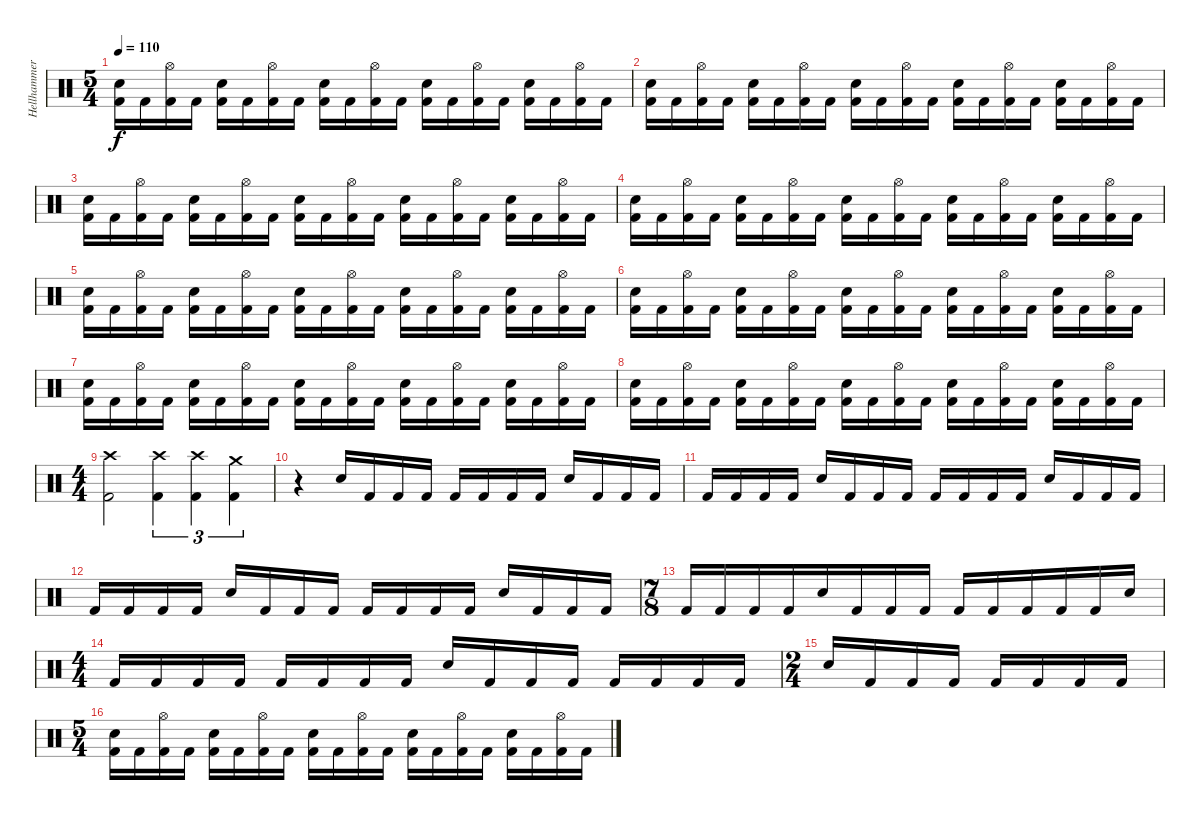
\track ("Hellhammer" "Hellhammer") {instrument percussion}
\staff {score}
\articulation defaults
\ts (5 4)
\tempo 110
\clef neutral
\ks c
("Electric Snare (hit)" "Kick (hit) 2").16{dy f} "Kick (hit) 2".16 ("Hi-Hat (open)" "Kick (hit) 2").16 "Kick (hit) 2".16 ("Electric Snare (hit)" "Kick (hit) 2").16 "Kick (hit) 2".16 ("Hi-Hat (open)" "Kick (hit) 2").16 "Kick (hit) 2".16 ("Electric Snare (hit)" "Kick (hit) 2").16 "Kick (hit) 2".16 ("Hi-Hat (open)" "Kick (hit) 2").16 "Kick (hit) 2".16 ("Electric Snare (hit)" "Kick (hit) 2").16 "Kick (hit) 2".16 ("Hi-Hat (open)" "Kick (hit) 2").16 "Kick (hit) 2".16 ("Electric Snare (hit)" "Kick (hit) 2").16 "Kick (hit) 2".16 ("Hi-Hat (open)" "Kick (hit) 2").16 "Kick (hit) 2".16 |
("Electric Snare (hit)" "Kick (hit) 2").16 "Kick (hit) 2".16 ("Hi-Hat (open)" "Kick (hit) 2").16 "Kick (hit) 2".16 ("Electric Snare (hit)" "Kick (hit) 2").16 "Kick (hit) 2".16 ("Hi-Hat (open)" "Kick (hit) 2").16 "Kick (hit) 2".16 ("Electric Snare (hit)" "Kick (hit) 2").16 "Kick (hit) 2".16 ("Hi-Hat (open)" "Kick (hit) 2").16 "Kick (hit) 2".16 ("Electric Snare (hit)" "Kick (hit) 2").16 "Kick (hit) 2".16 ("Hi-Hat (open)" "Kick (hit) 2").16 "Kick (hit) 2".16 ("Electric Snare (hit)" "Kick (hit) 2").16 "Kick (hit) 2".16 ("Hi-Hat (open)" "Kick (hit) 2").16 "Kick (hit) 2".16 |
("Electric Snare (hit)" "Kick (hit) 2").16 "Kick (hit) 2".16 ("Hi-Hat (open)" "Kick (hit) 2").16 "Kick (hit) 2".16 ("Electric Snare (hit)" "Kick (hit) 2").16 "Kick (hit) 2".16 ("Hi-Hat (open)" "Kick (hit) 2").16 "Kick (hit) 2".16 ("Electric Snare (hit)" "Kick (hit) 2").16 "Kick (hit) 2".16 ("Hi-Hat (open)" "Kick (hit) 2").16 "Kick (hit) 2".16 ("Electric Snare (hit)" "Kick (hit) 2").16 "Kick (hit) 2".16 ("Hi-Hat (open)" "Kick (hit) 2").16 "Kick (hit) 2".16 ("Electric Snare (hit)" "Kick (hit) 2").16 "Kick (hit) 2".16 ("Hi-Hat (open)" "Kick (hit) 2").16 "Kick (hit) 2".16 |
("Electric Snare (hit)" "Kick (hit) 2").16 "Kick (hit) 2".16 ("Hi-Hat (open)" "Kick (hit) 2").16 "Kick (hit) 2".16 ("Electric Snare (hit)" "Kick (hit) 2").16 "Kick (hit) 2".16 ("Hi-Hat (open)" "Kick (hit) 2").16 "Kick (hit) 2".16 ("Electric Snare (hit)" "Kick (hit) 2").16 "Kick (hit) 2".16 ("Hi-Hat (open)" "Kick (hit) 2").16 "Kick (hit) 2".16 ("Electric Snare (hit)" "Kick (hit) 2").16 "Kick (hit) 2".16 ("Hi-Hat (open)" "Kick (hit) 2").16 "Kick (hit) 2".16 ("Electric Snare (hit)" "Kick (hit) 2").16 "Kick (hit) 2".16 ("Hi-Hat (open)" "Kick (hit) 2").16 "Kick (hit) 2".16 |
("Electric Snare (hit)" "Kick (hit) 2").16 "Kick (hit) 2".16 ("Hi-Hat (open)" "Kick (hit) 2").16 "Kick (hit) 2".16 ("Electric Snare (hit)" "Kick (hit) 2").16 "Kick (hit) 2".16 ("Hi-Hat (open)" "Kick (hit) 2").16 "Kick (hit) 2".16 ("Electric Snare (hit)" "Kick (hit) 2").16 "Kick (hit) 2".16 ("Hi-Hat (open)" "Kick (hit) 2").16 "Kick (hit) 2".16 ("Electric Snare (hit)" "Kick (hit) 2").16 "Kick (hit) 2".16 ("Hi-Hat (open)" "Kick (hit) 2").16 "Kick (hit) 2".16 ("Electric Snare (hit)" "Kick (hit) 2").16 "Kick (hit) 2".16 ("Hi-Hat (open)" "Kick (hit) 2").16 "Kick (hit) 2".16 |
("Electric Snare (hit)" "Kick (hit) 2").16 "Kick (hit) 2".16 ("Hi-Hat (open)" "Kick (hit) 2").16 "Kick (hit) 2".16 ("Electric Snare (hit)" "Kick (hit) 2").16 "Kick (hit) 2".16 ("Hi-Hat (open)" "Kick (hit) 2").16 "Kick (hit) 2".16 ("Electric Snare (hit)" "Kick (hit) 2").16 "Kick (hit) 2".16 ("Hi-Hat (open)" "Kick (hit) 2").16 "Kick (hit) 2".16 ("Electric Snare (hit)" "Kick (hit) 2").16 "Kick (hit) 2".16 ("Hi-Hat (open)" "Kick (hit) 2").16 "Kick (hit) 2".16 ("Electric Snare (hit)" "Kick (hit) 2").16 "Kick (hit) 2".16 ("Hi-Hat (open)" "Kick (hit) 2").16 "Kick (hit) 2".16 |
("Electric Snare (hit)" "Kick (hit) 2").16 "Kick (hit) 2".16 ("Hi-Hat (open)" "Kick (hit) 2").16 "Kick (hit) 2".16 ("Electric Snare (hit)" "Kick (hit) 2").16 "Kick (hit) 2".16 ("Hi-Hat (open)" "Kick (hit) 2").16 "Kick (hit) 2".16 ("Electric Snare (hit)" "Kick (hit) 2").16 "Kick (hit) 2".16 ("Hi-Hat (open)" "Kick (hit) 2").16 "Kick (hit) 2".16 ("Electric Snare (hit)" "Kick (hit) 2").16 "Kick (hit) 2".16 ("Hi-Hat (open)" "Kick (hit) 2").16 "Kick (hit) 2".16 ("Electric Snare (hit)" "Kick (hit) 2").16 "Kick (hit) 2".16 ("Hi-Hat (open)" "Kick (hit) 2").16 "Kick (hit) 2".16 |
("Electric Snare (hit)" "Kick (hit) 2").16 "Kick (hit) 2".16 ("Hi-Hat (open)" "Kick (hit) 2").16 "Kick (hit) 2".16 ("Electric Snare (hit)" "Kick (hit) 2").16 "Kick (hit) 2".16 ("Hi-Hat (open)" "Kick (hit) 2").16 "Kick (hit) 2".16 ("Electric Snare (hit)" "Kick (hit) 2").16 "Kick (hit) 2".16 ("Hi-Hat (open)" "Kick (hit) 2").16 "Kick (hit) 2".16 ("Electric Snare (hit)" "Kick (hit) 2").16 "Kick (hit) 2".16 ("Hi-Hat (open)" "Kick (hit) 2").16 "Kick (hit) 2".16 ("Electric Snare (hit)" "Kick (hit) 2").16 "Kick (hit) 2".16 ("Hi-Hat (open)" "Kick (hit) 2").16 "Kick (hit) 2".16 |
\ts (4 4)
("Crash high (hit)" "Kick (hit) 2").2 ("Crash high (hit)" "Kick (hit) 2").4{tu (3 2)} ("Crash high (hit)" "Kick (hit) 2").4{tu (3 2)} ("Crash medium (hit)" "Kick (hit) 2").4{tu (3 2)} |
r.4 "Electric Snare (hit)".16 "Kick (hit) 2".16 "Kick (hit) 2".16 "Kick (hit) 2".16 "Kick (hit) 2".16 "Kick (hit) 2".16 "Kick (hit) 2".16 "Kick (hit) 2".16 "Electric Snare (hit)".16 "Kick (hit) 2".16 "Kick (hit) 2".16 "Kick (hit) 2".16 |
"Kick (hit) 2".16 "Kick (hit) 2".16 "Kick (hit) 2".16 "Kick (hit) 2".16 "Electric Snare (hit)".16 "Kick (hit) 2".16 "Kick (hit) 2".16 "Kick (hit) 2".16 "Kick (hit) 2".16 "Kick (hit) 2".16 "Kick (hit) 2".16 "Kick (hit) 2".16 "Electric Snare (hit)".16 "Kick (hit) 2".16 "Kick (hit) 2".16 "Kick (hit) 2".16 |
"Kick (hit) 2".16 "Kick (hit) 2".16 "Kick (hit) 2".16 "Kick (hit) 2".16 "Electric Snare (hit)".16 "Kick (hit) 2".16 "Kick (hit) 2".16 "Kick (hit) 2".16 "Kick (hit) 2".16 "Kick (hit) 2".16 "Kick (hit) 2".16 "Kick (hit) 2".16 "Electric Snare (hit)".16 "Kick (hit) 2".16 "Kick (hit) 2".16 "Kick (hit) 2".16 |
\ts (7 8)
"Kick (hit) 2".16 "Kick (hit) 2".16 "Kick (hit) 2".16 "Kick (hit) 2".16 "Electric Snare (hit)".16 "Kick (hit) 2".16 "Kick (hit) 2".16 "Kick (hit) 2".16 "Kick (hit) 2".16 "Kick (hit) 2".16 "Kick (hit) 2".16 "Kick (hit) 2".16 "Kick (hit) 2".16 "Electric Snare (hit)".16 |
\ts (4 4)
"Kick (hit) 2".16 "Kick (hit) 2".16 "Kick (hit) 2".16 "Kick (hit) 2".16 "Kick (hit) 2".16 "Kick (hit) 2".16 "Kick (hit) 2".16 "Kick (hit) 2".16 "Electric Snare (hit)".16 "Kick (hit) 2".16 "Kick (hit) 2".16 "Kick (hit) 2".16 "Kick (hit) 2".16 "Kick (hit) 2".16 "Kick (hit) 2".16 "Kick (hit) 2".16 |
\ts (2 4)
"Electric Snare (hit)".16 "Kick (hit) 2".16 "Kick (hit) 2".16 "Kick (hit) 2".16 "Kick (hit) 2".16 "Kick (hit) 2".16 "Kick (hit) 2".16 "Kick (hit) 2".16 |
\ts (5 4)
("Electric Snare (hit)" "Kick (hit) 2").16 "Kick (hit) 2".16 ("Hi-Hat (open)" "Kick (hit) 2").16 "Kick (hit) 2".16 ("Electric Snare (hit)" "Kick (hit) 2").16 "Kick (hit) 2".16 ("Hi-Hat (open)" "Kick (hit) 2").16 "Kick (hit) 2".16 ("Electric Snare (hit)" "Kick (hit) 2").16 "Kick (hit) 2".16 ("Hi-Hat (open)" "Kick (hit) 2").16 "Kick (hit) 2".16 ("Electric Snare (hit)" "Kick (hit) 2").16 "Kick (hit) 2".16 ("Hi-Hat (open)" "Kick (hit) 2").16 "Kick (hit) 2".16 ("Electric Snare (hit)" "Kick (hit) 2").16 "Kick (hit) 2".16 ("Hi-Hat (open)" "Kick (hit) 2").16 "Kick (hit) 2".16
